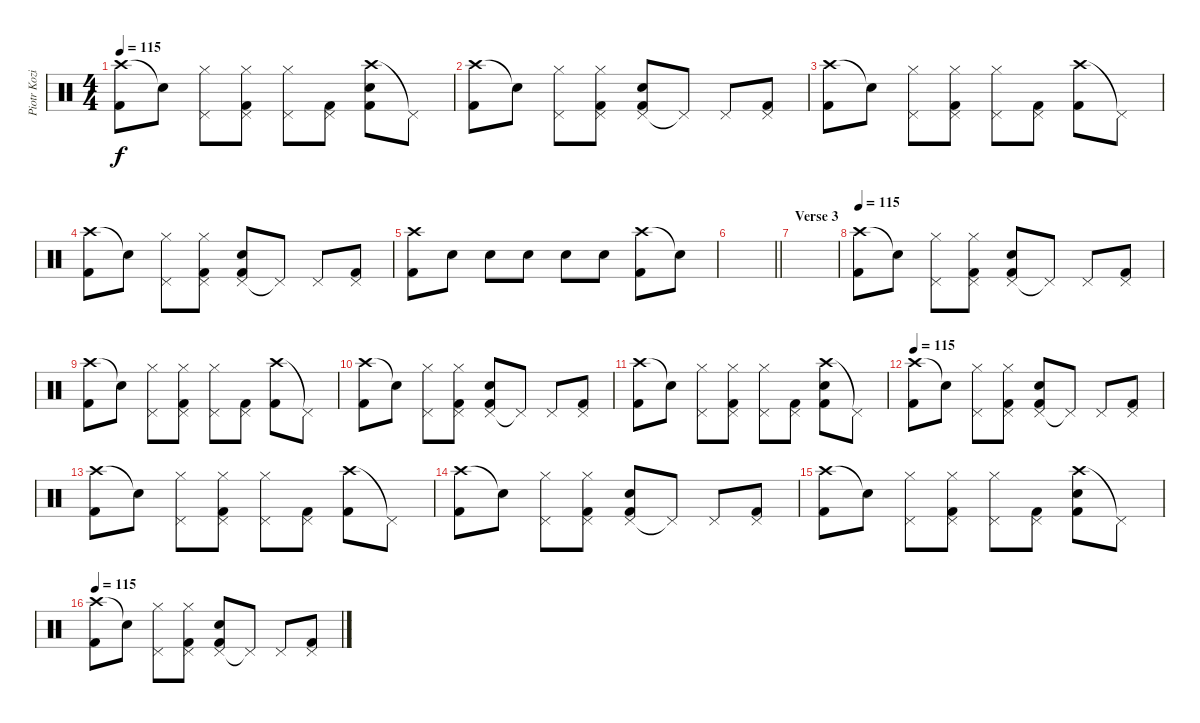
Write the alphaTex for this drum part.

\track ("Piotr Kozieradzki" "Piotr Kozi") {instrument percussion}
\staff {score}
\articulation defaults
\ts (4 4)
\tempo 115
\clef neutral
\ks c
("Crash high (hit)" "Kick (hit) 2").8{dy f} "Snare (hit)"{t}.8 ("Pedal Hi-Hat (hit)" "Hi-Hat (closed)").8 ("Pedal Hi-Hat (hit)" "Hi-Hat (closed)" "Kick (hit) 2").8 ("Pedal Hi-Hat (hit)" "Hi-Hat (closed)").8 ("Pedal Hi-Hat (hit)" "Kick (hit) 2").8 ("Crash high (hit)" "Electric Snare (hit)" "Kick (hit) 2").8 "Pedal Hi-Hat (hit)"{t}.8 |
("Crash high (hit)" "Kick (hit) 2").8 "Snare (hit)"{t}.8 ("Pedal Hi-Hat (hit)" "Hi-Hat (closed)").8 ("Pedal Hi-Hat (hit)" "Hi-Hat (closed)" "Kick (hit) 2").8 ("Pedal Hi-Hat (hit)" "Electric Snare (hit)" "Kick (hit) 2").8 "Pedal Hi-Hat (hit)"{t}.8 "Pedal Hi-Hat (hit)".8 ("Pedal Hi-Hat (hit)" "Kick (hit) 2").8 |
("Crash high (hit)" "Kick (hit) 2").8 "Snare (hit)"{t}.8 ("Pedal Hi-Hat (hit)" "Hi-Hat (closed)").8 ("Pedal Hi-Hat (hit)" "Hi-Hat (closed)" "Kick (hit) 2").8 ("Pedal Hi-Hat (hit)" "Hi-Hat (closed)").8 ("Pedal Hi-Hat (hit)" "Kick (hit) 2").8 ("Crash high (hit)" "Kick (hit) 2").8 "Pedal Hi-Hat (hit)"{t}.8 |
("Crash high (hit)" "Kick (hit) 2").8 "Snare (hit)"{t}.8 ("Pedal Hi-Hat (hit)" "Hi-Hat (closed)").8 ("Pedal Hi-Hat (hit)" "Hi-Hat (closed)" "Kick (hit) 2").8 ("Pedal Hi-Hat (hit)" "Electric Snare (hit)" "Kick (hit) 2").8 "Pedal Hi-Hat (hit)"{t}.8 "Pedal Hi-Hat (hit)".8 ("Pedal Hi-Hat (hit)" "Kick (hit) 2").8 |
("Crash high (hit)" "Kick (hit) 2").8 "Electric Snare (hit)".8 "Electric Snare (hit)".8 "Electric Snare (hit)".8 "Electric Snare (hit)".8 "Electric Snare (hit)".8 ("Crash high (hit)" "Kick (hit) 2").8 "Snare (hit)"{t}.8 |
\barLineRight lightlight
|
\section ("" "Verse 3")
|
\tempo 115
("Crash high (hit)" "Kick (hit) 2").8 "Snare (hit)"{t}.8 ("Pedal Hi-Hat (hit)" "Hi-Hat (closed)").8 ("Pedal Hi-Hat (hit)" "Hi-Hat (closed)" "Kick (hit) 2").8 ("Pedal Hi-Hat (hit)" "Electric Snare (hit)" "Kick (hit) 2").8 "Pedal Hi-Hat (hit)"{t}.8 "Pedal Hi-Hat (hit)".8 ("Pedal Hi-Hat (hit)" "Kick (hit) 2").8 |
("Crash high (hit)" "Kick (hit) 2").8 "Snare (hit)"{t}.8 ("Pedal Hi-Hat (hit)" "Hi-Hat (closed)").8 ("Pedal Hi-Hat (hit)" "Hi-Hat (closed)" "Kick (hit) 2").8 ("Pedal Hi-Hat (hit)" "Hi-Hat (closed)").8 ("Pedal Hi-Hat (hit)" "Kick (hit) 2").8 ("Crash high (hit)" "Kick (hit) 2").8 "Pedal Hi-Hat (hit)"{t}.8 |
("Crash high (hit)" "Kick (hit) 2").8 "Snare (hit)"{t}.8 ("Pedal Hi-Hat (hit)" "Hi-Hat (closed)").8 ("Pedal Hi-Hat (hit)" "Hi-Hat (closed)" "Kick (hit) 2").8 ("Pedal Hi-Hat (hit)" "Electric Snare (hit)" "Kick (hit) 2").8 "Pedal Hi-Hat (hit)"{t}.8 "Pedal Hi-Hat (hit)".8 ("Pedal Hi-Hat (hit)" "Kick (hit) 2").8 |
("Crash high (hit)" "Kick (hit) 2").8 "Snare (hit)"{t}.8 ("Pedal Hi-Hat (hit)" "Hi-Hat (closed)").8 ("Pedal Hi-Hat (hit)" "Hi-Hat (closed)" "Kick (hit) 2").8 ("Pedal Hi-Hat (hit)" "Hi-Hat (closed)").8 ("Pedal Hi-Hat (hit)" "Kick (hit) 2").8 ("Crash high (hit)" "Electric Snare (hit)" "Kick (hit) 2").8 "Pedal Hi-Hat (hit)"{t}.8 |
\tempo 115
("Crash high (hit)" "Kick (hit) 2").8 "Snare (hit)"{t}.8 ("Pedal Hi-Hat (hit)" "Hi-Hat (closed)").8 ("Pedal Hi-Hat (hit)" "Hi-Hat (closed)" "Kick (hit) 2").8 ("Pedal Hi-Hat (hit)" "Electric Snare (hit)" "Kick (hit) 2").8 "Pedal Hi-Hat (hit)"{t}.8 "Pedal Hi-Hat (hit)".8 ("Pedal Hi-Hat (hit)" "Kick (hit) 2").8 |
("Crash high (hit)" "Kick (hit) 2").8 "Snare (hit)"{t}.8 ("Pedal Hi-Hat (hit)" "Hi-Hat (closed)").8 ("Pedal Hi-Hat (hit)" "Hi-Hat (closed)" "Kick (hit) 2").8 ("Pedal Hi-Hat (hit)" "Hi-Hat (closed)").8 ("Pedal Hi-Hat (hit)" "Kick (hit) 2").8 ("Crash high (hit)" "Kick (hit) 2").8 "Pedal Hi-Hat (hit)"{t}.8 |
("Crash high (hit)" "Kick (hit) 2").8 "Snare (hit)"{t}.8 ("Pedal Hi-Hat (hit)" "Hi-Hat (closed)").8 ("Pedal Hi-Hat (hit)" "Hi-Hat (closed)" "Kick (hit) 2").8 ("Pedal Hi-Hat (hit)" "Electric Snare (hit)" "Kick (hit) 2").8 "Pedal Hi-Hat (hit)"{t}.8 "Pedal Hi-Hat (hit)".8 ("Pedal Hi-Hat (hit)" "Kick (hit) 2").8 |
("Crash high (hit)" "Kick (hit) 2").8 "Snare (hit)"{t}.8 ("Pedal Hi-Hat (hit)" "Hi-Hat (closed)").8 ("Pedal Hi-Hat (hit)" "Hi-Hat (closed)" "Kick (hit) 2").8 ("Pedal Hi-Hat (hit)" "Hi-Hat (closed)").8 ("Pedal Hi-Hat (hit)" "Kick (hit) 2").8 ("Crash high (hit)" "Electric Snare (hit)" "Kick (hit) 2").8 "Pedal Hi-Hat (hit)"{t}.8 |
\tempo 115
("Crash high (hit)" "Kick (hit) 2").8 "Snare (hit)"{t}.8 ("Pedal Hi-Hat (hit)" "Hi-Hat (closed)").8 ("Pedal Hi-Hat (hit)" "Hi-Hat (closed)" "Kick (hit) 2").8 ("Pedal Hi-Hat (hit)" "Electric Snare (hit)" "Kick (hit) 2").8 "Pedal Hi-Hat (hit)"{t}.8 "Pedal Hi-Hat (hit)".8 ("Pedal Hi-Hat (hit)" "Kick (hit) 2").8
